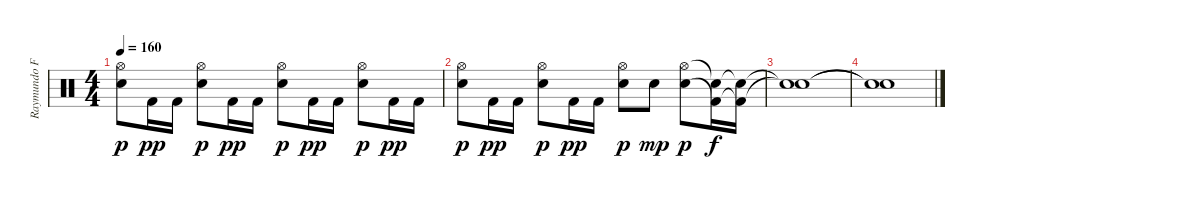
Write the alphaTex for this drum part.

\track ("Raymundo Fajardo (Batería)" "Raymundo F") {instrument percussion}
\staff {score}
\articulation defaults
\ts (4 4)
\tempo 160
\clef neutral
\ks c
("Electric Snare (hit)" "Hi-Hat (open)").8{dy p} "Kick (hit) 2".16{dy pp} "Kick (hit) 2".16 ("Electric Snare (hit)" "Hi-Hat (open)").8{dy p} "Kick (hit) 2".16{dy pp} "Kick (hit) 2".16 ("Electric Snare (hit)" "Hi-Hat (open)").8{dy p} "Kick (hit) 2".16{dy pp} "Kick (hit) 2".16 ("Electric Snare (hit)" "Hi-Hat (open)").8{dy p} "Kick (hit) 2".16{dy pp} "Kick (hit) 2".16 |
("Electric Snare (hit)" "Hi-Hat (open)").8{dy p} "Kick (hit) 2".16{dy pp} "Kick (hit) 2".16 ("Electric Snare (hit)" "Hi-Hat (open)").8{dy p} "Kick (hit) 2".16{dy pp} "Kick (hit) 2".16 ("Electric Snare (hit)" "Hi-Hat (open)").8{dy p} "Electric Snare (hit)".8{dy mp} ("Electric Snare (hit)" "Hi-Hat (open)").8{dy p} ("Kick (hit) 2"{t} "Snare (hit)"{t}).16{dy f} ("Kick (hit) 2"{t} "Snare (hit)"{t}).16 |
("Snare (hit)"{t} "Snare (hit)"{t}).1 |
("Snare (hit)"{t} "Snare (hit)"{t}).1
